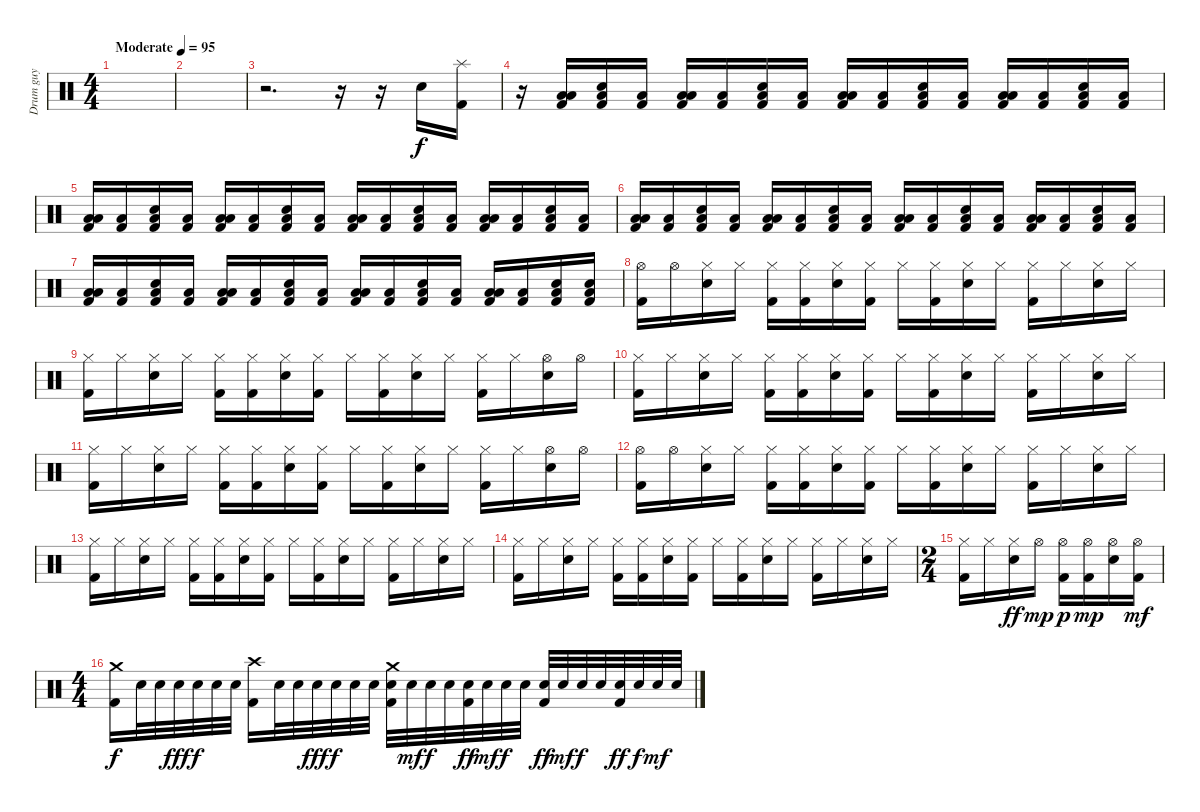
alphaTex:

\track ("Drum guy" "Drum guy") {instrument percussion}
\staff {score}
\articulation defaults
\ts (4 4)
\tempo (95 "Moderate")
\clef neutral
\ks c
|
|
r.2{d} r.16 r.16 "Electric Snare (hit)".16 ("Splash (hit)" "Kick (hit) 2").16 |
r.16 ("Low Floor Tom (hit)" "Low Floor Tom (hit)" "Kick (hit) 2").16 ("Electric Snare (hit)" "Low Floor Tom (hit)" "Kick (hit) 2").16 ("Low Floor Tom (hit)" "Kick (hit) 2").16 ("Low Floor Tom (hit)" "Low Floor Tom (hit)" "Kick (hit) 2").16 ("Low Floor Tom (hit)" "Kick (hit) 2").16 ("Electric Snare (hit)" "Low Floor Tom (hit)" "Kick (hit) 2").16 ("Low Floor Tom (hit)" "Kick (hit) 2").16 ("Low Floor Tom (hit)" "Low Floor Tom (hit)" "Kick (hit) 2").16 ("Low Floor Tom (hit)" "Kick (hit) 2").16 ("Electric Snare (hit)" "Low Floor Tom (hit)" "Kick (hit) 2").16 ("Low Floor Tom (hit)" "Kick (hit) 2").16 ("Low Floor Tom (hit)" "Low Floor Tom (hit)" "Kick (hit) 2").16 ("Low Floor Tom (hit)" "Kick (hit) 2").16 ("Electric Snare (hit)" "Low Floor Tom (hit)" "Kick (hit) 2").16 ("Low Floor Tom (hit)" "Kick (hit) 2").16 |
("Low Floor Tom (hit)" "Low Floor Tom (hit)" "Kick (hit) 2").16 ("Low Floor Tom (hit)" "Kick (hit) 2").16 ("Electric Snare (hit)" "Low Floor Tom (hit)" "Kick (hit) 2").16 ("Low Floor Tom (hit)" "Kick (hit) 2").16 ("Low Floor Tom (hit)" "Low Floor Tom (hit)" "Kick (hit) 2").16 ("Low Floor Tom (hit)" "Kick (hit) 2").16 ("Electric Snare (hit)" "Low Floor Tom (hit)" "Kick (hit) 2").16 ("Low Floor Tom (hit)" "Kick (hit) 2").16 ("Low Floor Tom (hit)" "Low Floor Tom (hit)" "Kick (hit) 2").16 ("Low Floor Tom (hit)" "Kick (hit) 2").16 ("Electric Snare (hit)" "Low Floor Tom (hit)" "Kick (hit) 2").16 ("Low Floor Tom (hit)" "Kick (hit) 2").16 ("Low Floor Tom (hit)" "Low Floor Tom (hit)" "Kick (hit) 2").16 ("Low Floor Tom (hit)" "Kick (hit) 2").16 ("Electric Snare (hit)" "Low Floor Tom (hit)" "Kick (hit) 2").16 ("Low Floor Tom (hit)" "Kick (hit) 2").16 |
("Low Floor Tom (hit)" "Low Floor Tom (hit)" "Kick (hit) 2").16 ("Low Floor Tom (hit)" "Kick (hit) 2").16 ("Electric Snare (hit)" "Low Floor Tom (hit)" "Kick (hit) 2").16 ("Low Floor Tom (hit)" "Kick (hit) 2").16 ("Low Floor Tom (hit)" "Low Floor Tom (hit)" "Kick (hit) 2").16 ("Low Floor Tom (hit)" "Kick (hit) 2").16 ("Electric Snare (hit)" "Low Floor Tom (hit)" "Kick (hit) 2").16 ("Low Floor Tom (hit)" "Kick (hit) 2").16 ("Low Floor Tom (hit)" "Low Floor Tom (hit)" "Kick (hit) 2").16 ("Low Floor Tom (hit)" "Kick (hit) 2").16 ("Electric Snare (hit)" "Low Floor Tom (hit)" "Kick (hit) 2").16 ("Low Floor Tom (hit)" "Kick (hit) 2").16 ("Low Floor Tom (hit)" "Low Floor Tom (hit)" "Kick (hit) 2").16 ("Low Floor Tom (hit)" "Kick (hit) 2").16 ("Electric Snare (hit)" "Low Floor Tom (hit)" "Kick (hit) 2").16 ("Low Floor Tom (hit)" "Kick (hit) 2").16 |
("Low Floor Tom (hit)" "Low Floor Tom (hit)" "Kick (hit) 2").16 ("Low Floor Tom (hit)" "Kick (hit) 2").16 ("Electric Snare (hit)" "Low Floor Tom (hit)" "Kick (hit) 2").16 ("Low Floor Tom (hit)" "Kick (hit) 2").16 ("Low Floor Tom (hit)" "Low Floor Tom (hit)" "Kick (hit) 2").16 ("Low Floor Tom (hit)" "Kick (hit) 2").16 ("Electric Snare (hit)" "Low Floor Tom (hit)" "Kick (hit) 2").16 ("Low Floor Tom (hit)" "Kick (hit) 2").16 ("Low Floor Tom (hit)" "Low Floor Tom (hit)" "Kick (hit) 2").16 ("Low Floor Tom (hit)" "Kick (hit) 2").16 ("Electric Snare (hit)" "Low Floor Tom (hit)" "Kick (hit) 2").16 ("Low Floor Tom (hit)" "Kick (hit) 2").16 ("Low Floor Tom (hit)" "Low Floor Tom (hit)" "Kick (hit) 2").16 ("Low Floor Tom (hit)" "Kick (hit) 2").16 ("Electric Snare (hit)" "Low Floor Tom (hit)" "Kick (hit) 2").16 ("Electric Snare (hit)" "Low Floor Tom (hit)" "Kick (hit) 2").16 |
("Hi-Hat (open)" "Kick (hit) 2").16 "Hi-Hat (open)".16 ("Hi-Hat (closed)" "Electric Snare (hit)").16 "Hi-Hat (closed)".16 ("Hi-Hat (closed)" "Kick (hit) 2").16 ("Hi-Hat (closed)" "Kick (hit) 2").16 ("Hi-Hat (closed)" "Electric Snare (hit)").16 ("Hi-Hat (closed)" "Kick (hit) 2").16 "Hi-Hat (closed)".16 ("Hi-Hat (closed)" "Kick (hit) 2").16 ("Hi-Hat (closed)" "Electric Snare (hit)").16 "Hi-Hat (closed)".16 ("Hi-Hat (closed)" "Kick (hit) 2").16 "Hi-Hat (closed)".16 ("Hi-Hat (closed)" "Electric Snare (hit)").16 "Hi-Hat (closed)".16 |
("Hi-Hat (closed)" "Kick (hit) 2").16 "Hi-Hat (closed)".16 ("Hi-Hat (closed)" "Electric Snare (hit)").16 "Hi-Hat (closed)".16 ("Hi-Hat (closed)" "Kick (hit) 2").16 ("Hi-Hat (closed)" "Kick (hit) 2").16 ("Hi-Hat (closed)" "Electric Snare (hit)").16 ("Hi-Hat (closed)" "Kick (hit) 2").16 "Hi-Hat (closed)".16 ("Hi-Hat (closed)" "Kick (hit) 2").16 ("Hi-Hat (closed)" "Electric Snare (hit)").16 "Hi-Hat (closed)".16 ("Hi-Hat (closed)" "Kick (hit) 2").16 "Hi-Hat (closed)".16 ("Hi-Hat (open)" "Electric Snare (hit)").16 "Hi-Hat (open)".16 |
("Hi-Hat (closed)" "Kick (hit) 2").16 "Hi-Hat (closed)".16 ("Hi-Hat (closed)" "Electric Snare (hit)").16 "Hi-Hat (closed)".16 ("Hi-Hat (closed)" "Kick (hit) 2").16 ("Hi-Hat (closed)" "Kick (hit) 2").16 ("Hi-Hat (closed)" "Electric Snare (hit)").16 ("Hi-Hat (closed)" "Kick (hit) 2").16 "Hi-Hat (closed)".16 ("Hi-Hat (closed)" "Kick (hit) 2").16 ("Hi-Hat (closed)" "Electric Snare (hit)").16 "Hi-Hat (closed)".16 ("Hi-Hat (closed)" "Kick (hit) 2").16 "Hi-Hat (closed)".16 ("Hi-Hat (closed)" "Electric Snare (hit)").16 "Hi-Hat (closed)".16 |
("Hi-Hat (closed)" "Kick (hit) 2").16 "Hi-Hat (closed)".16 ("Hi-Hat (closed)" "Electric Snare (hit)").16 "Hi-Hat (closed)".16 ("Hi-Hat (closed)" "Kick (hit) 2").16 ("Hi-Hat (closed)" "Kick (hit) 2").16 ("Hi-Hat (closed)" "Electric Snare (hit)").16 ("Hi-Hat (closed)" "Kick (hit) 2").16 "Hi-Hat (closed)".16 ("Hi-Hat (closed)" "Kick (hit) 2").16 ("Hi-Hat (closed)" "Electric Snare (hit)").16 "Hi-Hat (closed)".16 ("Hi-Hat (closed)" "Kick (hit) 2").16 "Hi-Hat (closed)".16 ("Hi-Hat (open)" "Electric Snare (hit)").16 "Hi-Hat (open)".16 |
("Hi-Hat (open)" "Kick (hit) 2").16 "Hi-Hat (open)".16 ("Hi-Hat (closed)" "Electric Snare (hit)").16 "Hi-Hat (closed)".16 ("Hi-Hat (closed)" "Kick (hit) 2").16 ("Hi-Hat (closed)" "Kick (hit) 2").16 ("Hi-Hat (closed)" "Electric Snare (hit)").16 ("Hi-Hat (closed)" "Kick (hit) 2").16 "Hi-Hat (closed)".16 ("Hi-Hat (closed)" "Kick (hit) 2").16 ("Hi-Hat (closed)" "Electric Snare (hit)").16 "Hi-Hat (closed)".16 ("Hi-Hat (closed)" "Kick (hit) 2").16 "Hi-Hat (closed)".16 ("Hi-Hat (closed)" "Electric Snare (hit)").16 "Hi-Hat (closed)".16 |
("Hi-Hat (closed)" "Kick (hit) 2").16 "Hi-Hat (closed)".16 ("Hi-Hat (closed)" "Electric Snare (hit)").16 "Hi-Hat (closed)".16 ("Hi-Hat (closed)" "Kick (hit) 2").16 ("Hi-Hat (closed)" "Kick (hit) 2").16 ("Hi-Hat (closed)" "Electric Snare (hit)").16 ("Hi-Hat (closed)" "Kick (hit) 2").16 "Hi-Hat (closed)".16 ("Hi-Hat (closed)" "Kick (hit) 2").16 ("Hi-Hat (closed)" "Electric Snare (hit)").16 "Hi-Hat (closed)".16 ("Hi-Hat (closed)" "Kick (hit) 2").16 "Hi-Hat (closed)".16 ("Hi-Hat (closed)" "Electric Snare (hit)").16 "Hi-Hat (closed)".16 |
("Hi-Hat (closed)" "Kick (hit) 2").16 "Hi-Hat (closed)".16 ("Hi-Hat (closed)" "Electric Snare (hit)").16 "Hi-Hat (closed)".16 ("Hi-Hat (closed)" "Kick (hit) 2").16 ("Hi-Hat (closed)" "Kick (hit) 2").16 ("Hi-Hat (closed)" "Electric Snare (hit)").16 ("Hi-Hat (closed)" "Kick (hit) 2").16 "Hi-Hat (closed)".16 ("Hi-Hat (closed)" "Kick (hit) 2").16 ("Hi-Hat (closed)" "Electric Snare (hit)").16 "Hi-Hat (closed)".16 ("Hi-Hat (closed)" "Kick (hit) 2").16 "Hi-Hat (closed)".16 ("Hi-Hat (closed)" "Electric Snare (hit)").16 "Hi-Hat (closed)".16 |
\ts (2 4)
("Hi-Hat (closed)" "Kick (hit) 2").16 "Hi-Hat (closed)".16 ("Hi-Hat (closed)" "Electric Snare (hit)").16{dy ff} "Hi-Hat (open)".16{dy mp} ("Hi-Hat (open)" "Kick (hit) 2").16{dy p} ("Hi-Hat (open)" "Kick (hit) 2").16{dy mp} ("Hi-Hat (open)" "Electric Snare (hit)").16 ("Hi-Hat (open)" "Kick (hit) 2").16{dy mf} |
\ts (4 4)
("Crash medium (hit)" "Kick (hit) 2").16{dy f} "Electric Snare (hit)".32 "Electric Snare (hit)".32 "Electric Snare (hit)".32{dy fff} "Electric Snare (hit)".32{dy f} "Electric Snare (hit)".32 "Electric Snare (hit)".32 ("Crash high (hit)" "Kick (hit) 2").16 "Electric Snare (hit)".32 "Electric Snare (hit)".32 "Electric Snare (hit)".32{dy fff} "Electric Snare (hit)".32{dy f} "Electric Snare (hit)".32 "Electric Snare (hit)".32 ("Crash medium (hit)" "Electric Snare (hit)" "Kick (hit) 2").32 "Electric Snare (hit)".32{dy mf} "Electric Snare (hit)".32{dy f} "Electric Snare (hit)".32 ("Electric Snare (hit)" "Kick (hit) 2").32{dy ff} "Electric Snare (hit)".32{dy mf} "Electric Snare (hit)".32{dy f} "Electric Snare (hit)".32 ("Electric Snare (hit)" "Kick (hit) 2").32{dy ff} "Electric Snare (hit)".32{dy mf} "Electric Snare (hit)".32{dy f} "Electric Snare (hit)".32 ("Electric Snare (hit)" "Kick (hit) 2").32{dy ff} "Electric Snare (hit)".32{dy f} "Electric Snare (hit)".32{dy mf} "Electric Snare (hit)".32
